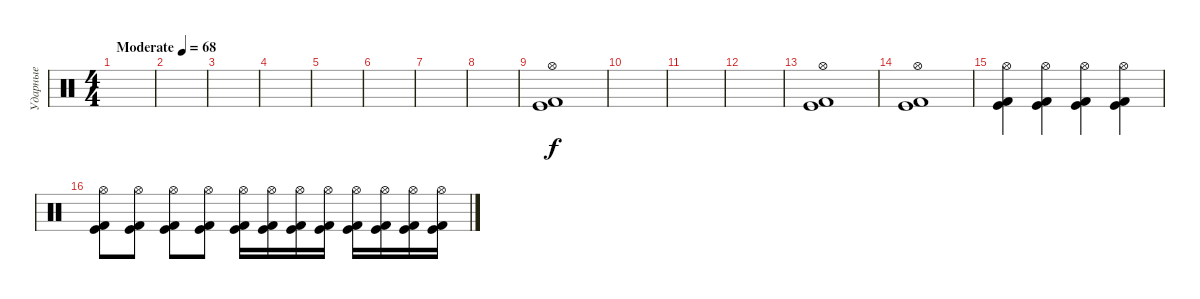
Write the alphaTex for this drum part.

\track ("Ударные" "Ударные") {instrument percussion}
\staff {score}
\articulation defaults
\ts (4 4)
\tempo (68 "Moderate")
\clef neutral
\ks c
|
|
|
|
|
|
|
|
("Kick (hit)" "Kick (hit) 2" "Hi-Hat (open)").1 |
|
|
|
("Kick (hit)" "Kick (hit) 2" "Hi-Hat (open)").1 |
("Kick (hit)" "Kick (hit) 2" "Hi-Hat (open)").1 |
("Kick (hit)" "Kick (hit) 2" "Hi-Hat (open)").4 ("Kick (hit)" "Kick (hit) 2" "Hi-Hat (open)").4 ("Kick (hit)" "Kick (hit) 2" "Hi-Hat (open)").4 ("Kick (hit)" "Kick (hit) 2" "Hi-Hat (open)").4 |
("Kick (hit)" "Kick (hit) 2" "Hi-Hat (open)").8 ("Kick (hit)" "Kick (hit) 2" "Hi-Hat (open)").8 ("Kick (hit)" "Kick (hit) 2" "Hi-Hat (open)").8 ("Kick (hit)" "Kick (hit) 2" "Hi-Hat (open)").8 ("Kick (hit)" "Kick (hit) 2" "Hi-Hat (open)").16 ("Kick (hit)" "Kick (hit) 2" "Hi-Hat (open)").16 ("Kick (hit)" "Kick (hit) 2" "Hi-Hat (open)").16 ("Kick (hit)" "Kick (hit) 2" "Hi-Hat (open)").16 ("Kick (hit)" "Kick (hit) 2" "Hi-Hat (open)").16 ("Kick (hit)" "Kick (hit) 2" "Hi-Hat (open)").16 ("Kick (hit)" "Kick (hit) 2" "Hi-Hat (open)").16 ("Kick (hit)" "Kick (hit) 2" "Hi-Hat (open)").16
